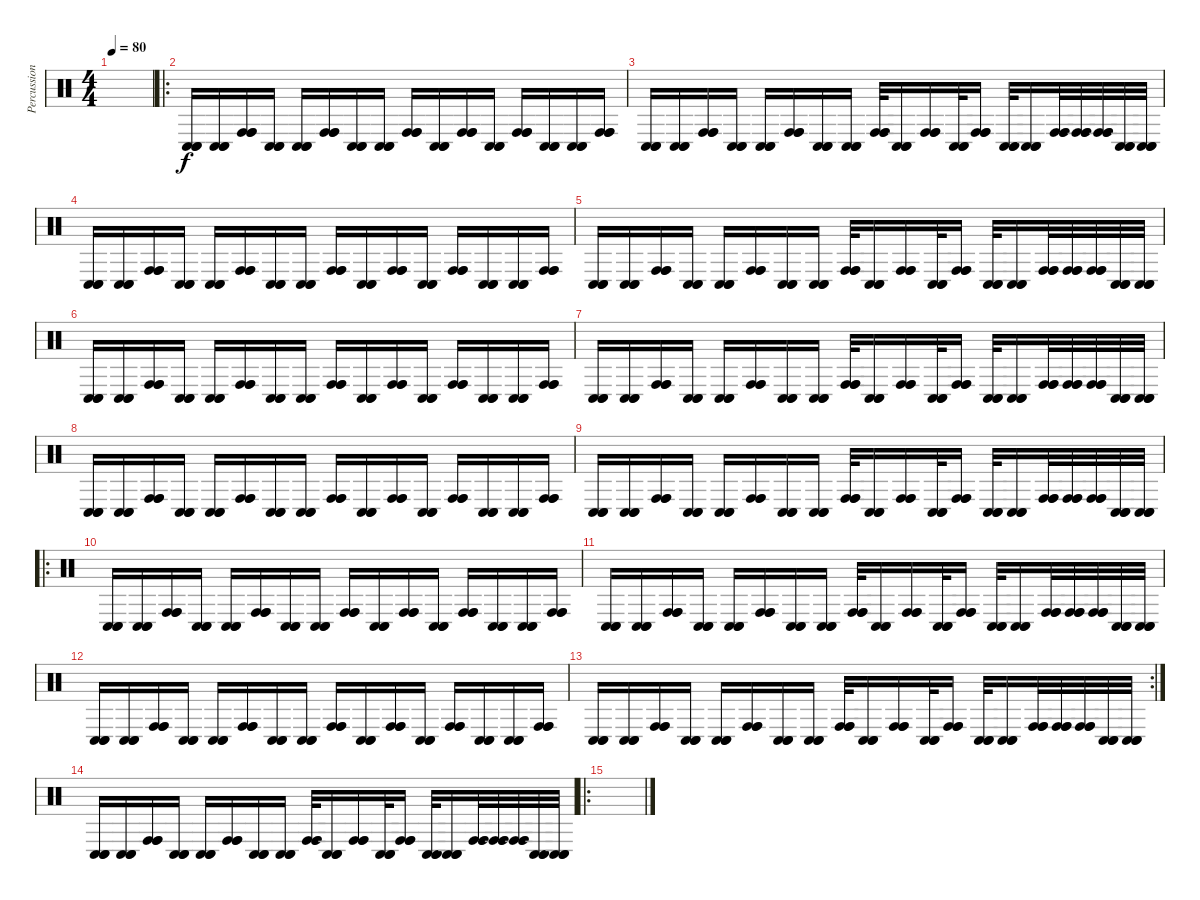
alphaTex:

\track ("Percussion" "Percussion") {instrument percussion}
\staff {score}
\articulation defaults
\ts (4 4)
\tempo 80
\clef neutral
\ks c
|
\ro
("Conga low (hit)" "Conga low (hit)" "Conga low (hit)").16 ("Conga low (hit)" "Conga low (hit)" "Conga low (hit)").16 ("Conga high (hit)" "Conga high (hit)" "Conga high (hit)").16 ("Conga low (hit)" "Conga low (hit)" "Conga low (hit)").16 ("Conga low (hit)" "Conga low (hit)" "Conga low (hit)").16 ("Conga high (hit)" "Conga high (hit)" "Conga high (hit)").16 ("Conga low (hit)" "Conga low (hit)" "Conga low (hit)").16 ("Conga low (hit)" "Conga low (hit)" "Conga low (hit)").16 ("Conga high (hit)" "Conga high (hit)" "Conga high (hit)").16 ("Conga low (hit)" "Conga low (hit)" "Conga low (hit)").16 ("Conga high (hit)" "Conga high (hit)" "Conga high (hit)").16 ("Conga low (hit)" "Conga low (hit)" "Conga low (hit)").16 ("Conga high (hit)" "Conga high (hit)" "Conga high (hit)").16 ("Conga low (hit)" "Conga low (hit)" "Conga low (hit)").16 ("Conga low (hit)" "Conga low (hit)" "Conga low (hit)").16 ("Conga high (hit)" "Conga high (hit)" "Conga high (hit)").16 |
("Conga low (hit)" "Conga low (hit)" "Conga low (hit)").16 ("Conga low (hit)" "Conga low (hit)" "Conga low (hit)").16 ("Conga high (hit)" "Conga high (hit)" "Conga high (hit)").16 ("Conga low (hit)" "Conga low (hit)" "Conga low (hit)").16 ("Conga low (hit)" "Conga low (hit)" "Conga low (hit)").16 ("Conga high (hit)" "Conga high (hit)" "Conga high (hit)").16 ("Conga low (hit)" "Conga low (hit)" "Conga low (hit)").16 ("Conga low (hit)" "Conga low (hit)" "Conga low (hit)").16 ("Conga high (hit)" "Conga high (hit)" "Conga high (hit)").32 ("Conga low (hit)" "Conga low (hit)" "Conga low (hit)").16 ("Conga high (hit)" "Conga high (hit)" "Conga high (hit)").16 ("Conga low (hit)" "Conga low (hit)" "Conga low (hit)").32 ("Conga high (hit)" "Conga high (hit)" "Conga high (hit)").16 ("Conga low (hit)" "Conga low (hit)" "Conga low (hit)").32 ("Conga low (hit)" "Conga low (hit)" "Conga low (hit)").16 ("Conga high (hit)" "Conga high (hit)" "Conga high (hit)").32 ("Conga high (hit)" "Conga high (hit)" "Conga high (hit)").32 ("Conga high (hit)" "Conga high (hit)" "Conga high (hit)").32 ("Conga low (hit)" "Conga low (hit)" "Conga low (hit)").32 ("Conga low (hit)" "Conga low (hit)" "Conga low (hit)").32 |
("Conga low (hit)" "Conga low (hit)" "Conga low (hit)").16 ("Conga low (hit)" "Conga low (hit)" "Conga low (hit)").16 ("Conga high (hit)" "Conga high (hit)" "Conga high (hit)").16 ("Conga low (hit)" "Conga low (hit)" "Conga low (hit)").16 ("Conga low (hit)" "Conga low (hit)" "Conga low (hit)").16 ("Conga high (hit)" "Conga high (hit)" "Conga high (hit)").16 ("Conga low (hit)" "Conga low (hit)" "Conga low (hit)").16 ("Conga low (hit)" "Conga low (hit)" "Conga low (hit)").16 ("Conga high (hit)" "Conga high (hit)" "Conga high (hit)").16 ("Conga low (hit)" "Conga low (hit)" "Conga low (hit)").16 ("Conga high (hit)" "Conga high (hit)" "Conga high (hit)").16 ("Conga low (hit)" "Conga low (hit)" "Conga low (hit)").16 ("Conga high (hit)" "Conga high (hit)" "Conga high (hit)").16 ("Conga low (hit)" "Conga low (hit)" "Conga low (hit)").16 ("Conga low (hit)" "Conga low (hit)" "Conga low (hit)").16 ("Conga high (hit)" "Conga high (hit)" "Conga high (hit)").16 |
("Conga low (hit)" "Conga low (hit)" "Conga low (hit)").16 ("Conga low (hit)" "Conga low (hit)" "Conga low (hit)").16 ("Conga high (hit)" "Conga high (hit)" "Conga high (hit)").16 ("Conga low (hit)" "Conga low (hit)" "Conga low (hit)").16 ("Conga low (hit)" "Conga low (hit)" "Conga low (hit)").16 ("Conga high (hit)" "Conga high (hit)" "Conga high (hit)").16 ("Conga low (hit)" "Conga low (hit)" "Conga low (hit)").16 ("Conga low (hit)" "Conga low (hit)" "Conga low (hit)").16 ("Conga high (hit)" "Conga high (hit)" "Conga high (hit)").32 ("Conga low (hit)" "Conga low (hit)" "Conga low (hit)").16 ("Conga high (hit)" "Conga high (hit)" "Conga high (hit)").16 ("Conga low (hit)" "Conga low (hit)" "Conga low (hit)").32 ("Conga high (hit)" "Conga high (hit)" "Conga high (hit)").16 ("Conga low (hit)" "Conga low (hit)" "Conga low (hit)").32 ("Conga low (hit)" "Conga low (hit)" "Conga low (hit)").16 ("Conga high (hit)" "Conga high (hit)" "Conga high (hit)").32 ("Conga high (hit)" "Conga high (hit)" "Conga high (hit)").32 ("Conga high (hit)" "Conga high (hit)" "Conga high (hit)").32 ("Conga low (hit)" "Conga low (hit)" "Conga low (hit)").32 ("Conga low (hit)" "Conga low (hit)" "Conga low (hit)").32 |
("Conga low (hit)" "Conga low (hit)" "Conga low (hit)").16 ("Conga low (hit)" "Conga low (hit)" "Conga low (hit)").16 ("Conga high (hit)" "Conga high (hit)" "Conga high (hit)").16 ("Conga low (hit)" "Conga low (hit)" "Conga low (hit)").16 ("Conga low (hit)" "Conga low (hit)" "Conga low (hit)").16 ("Conga high (hit)" "Conga high (hit)" "Conga high (hit)").16 ("Conga low (hit)" "Conga low (hit)" "Conga low (hit)").16 ("Conga low (hit)" "Conga low (hit)" "Conga low (hit)").16 ("Conga high (hit)" "Conga high (hit)" "Conga high (hit)").16 ("Conga low (hit)" "Conga low (hit)" "Conga low (hit)").16 ("Conga high (hit)" "Conga high (hit)" "Conga high (hit)").16 ("Conga low (hit)" "Conga low (hit)" "Conga low (hit)").16 ("Conga high (hit)" "Conga high (hit)" "Conga high (hit)").16 ("Conga low (hit)" "Conga low (hit)" "Conga low (hit)").16 ("Conga low (hit)" "Conga low (hit)" "Conga low (hit)").16 ("Conga high (hit)" "Conga high (hit)" "Conga high (hit)").16 |
("Conga low (hit)" "Conga low (hit)" "Conga low (hit)").16 ("Conga low (hit)" "Conga low (hit)" "Conga low (hit)").16 ("Conga high (hit)" "Conga high (hit)" "Conga high (hit)").16 ("Conga low (hit)" "Conga low (hit)" "Conga low (hit)").16 ("Conga low (hit)" "Conga low (hit)" "Conga low (hit)").16 ("Conga high (hit)" "Conga high (hit)" "Conga high (hit)").16 ("Conga low (hit)" "Conga low (hit)" "Conga low (hit)").16 ("Conga low (hit)" "Conga low (hit)" "Conga low (hit)").16 ("Conga high (hit)" "Conga high (hit)" "Conga high (hit)").32 ("Conga low (hit)" "Conga low (hit)" "Conga low (hit)").16 ("Conga high (hit)" "Conga high (hit)" "Conga high (hit)").16 ("Conga low (hit)" "Conga low (hit)" "Conga low (hit)").32 ("Conga high (hit)" "Conga high (hit)" "Conga high (hit)").16 ("Conga low (hit)" "Conga low (hit)" "Conga low (hit)").32 ("Conga low (hit)" "Conga low (hit)" "Conga low (hit)").16 ("Conga high (hit)" "Conga high (hit)" "Conga high (hit)").32 ("Conga high (hit)" "Conga high (hit)" "Conga high (hit)").32 ("Conga high (hit)" "Conga high (hit)" "Conga high (hit)").32 ("Conga low (hit)" "Conga low (hit)" "Conga low (hit)").32 ("Conga low (hit)" "Conga low (hit)" "Conga low (hit)").32 |
("Conga low (hit)" "Conga low (hit)" "Conga low (hit)").16 ("Conga low (hit)" "Conga low (hit)" "Conga low (hit)").16 ("Conga high (hit)" "Conga high (hit)" "Conga high (hit)").16 ("Conga low (hit)" "Conga low (hit)" "Conga low (hit)").16 ("Conga low (hit)" "Conga low (hit)" "Conga low (hit)").16 ("Conga high (hit)" "Conga high (hit)" "Conga high (hit)").16 ("Conga low (hit)" "Conga low (hit)" "Conga low (hit)").16 ("Conga low (hit)" "Conga low (hit)" "Conga low (hit)").16 ("Conga high (hit)" "Conga high (hit)" "Conga high (hit)").16 ("Conga low (hit)" "Conga low (hit)" "Conga low (hit)").16 ("Conga high (hit)" "Conga high (hit)" "Conga high (hit)").16 ("Conga low (hit)" "Conga low (hit)" "Conga low (hit)").16 ("Conga high (hit)" "Conga high (hit)" "Conga high (hit)").16 ("Conga low (hit)" "Conga low (hit)" "Conga low (hit)").16 ("Conga low (hit)" "Conga low (hit)" "Conga low (hit)").16 ("Conga high (hit)" "Conga high (hit)" "Conga high (hit)").16 |
("Conga low (hit)" "Conga low (hit)" "Conga low (hit)").16 ("Conga low (hit)" "Conga low (hit)" "Conga low (hit)").16 ("Conga high (hit)" "Conga high (hit)" "Conga high (hit)").16 ("Conga low (hit)" "Conga low (hit)" "Conga low (hit)").16 ("Conga low (hit)" "Conga low (hit)" "Conga low (hit)").16 ("Conga high (hit)" "Conga high (hit)" "Conga high (hit)").16 ("Conga low (hit)" "Conga low (hit)" "Conga low (hit)").16 ("Conga low (hit)" "Conga low (hit)" "Conga low (hit)").16 ("Conga high (hit)" "Conga high (hit)" "Conga high (hit)").32 ("Conga low (hit)" "Conga low (hit)" "Conga low (hit)").16 ("Conga high (hit)" "Conga high (hit)" "Conga high (hit)").16 ("Conga low (hit)" "Conga low (hit)" "Conga low (hit)").32 ("Conga high (hit)" "Conga high (hit)" "Conga high (hit)").16 ("Conga low (hit)" "Conga low (hit)" "Conga low (hit)").32 ("Conga low (hit)" "Conga low (hit)" "Conga low (hit)").16 ("Conga high (hit)" "Conga high (hit)" "Conga high (hit)").32 ("Conga high (hit)" "Conga high (hit)" "Conga high (hit)").32 ("Conga high (hit)" "Conga high (hit)" "Conga high (hit)").32 ("Conga low (hit)" "Conga low (hit)" "Conga low (hit)").32 ("Conga low (hit)" "Conga low (hit)" "Conga low (hit)").32 |
\ro
("Conga low (hit)" "Conga low (hit)" "Conga low (hit)").16 ("Conga low (hit)" "Conga low (hit)" "Conga low (hit)").16 ("Conga high (hit)" "Conga high (hit)" "Conga high (hit)").16 ("Conga low (hit)" "Conga low (hit)" "Conga low (hit)").16 ("Conga low (hit)" "Conga low (hit)" "Conga low (hit)").16 ("Conga high (hit)" "Conga high (hit)" "Conga high (hit)").16 ("Conga low (hit)" "Conga low (hit)" "Conga low (hit)").16 ("Conga low (hit)" "Conga low (hit)" "Conga low (hit)").16 ("Conga high (hit)" "Conga high (hit)" "Conga high (hit)").16 ("Conga low (hit)" "Conga low (hit)" "Conga low (hit)").16 ("Conga high (hit)" "Conga high (hit)" "Conga high (hit)").16 ("Conga low (hit)" "Conga low (hit)" "Conga low (hit)").16 ("Conga high (hit)" "Conga high (hit)" "Conga high (hit)").16 ("Conga low (hit)" "Conga low (hit)" "Conga low (hit)").16 ("Conga low (hit)" "Conga low (hit)" "Conga low (hit)").16 ("Conga high (hit)" "Conga high (hit)" "Conga high (hit)").16 |
("Conga low (hit)" "Conga low (hit)" "Conga low (hit)").16 ("Conga low (hit)" "Conga low (hit)" "Conga low (hit)").16 ("Conga high (hit)" "Conga high (hit)" "Conga high (hit)").16 ("Conga low (hit)" "Conga low (hit)" "Conga low (hit)").16 ("Conga low (hit)" "Conga low (hit)" "Conga low (hit)").16 ("Conga high (hit)" "Conga high (hit)" "Conga high (hit)").16 ("Conga low (hit)" "Conga low (hit)" "Conga low (hit)").16 ("Conga low (hit)" "Conga low (hit)" "Conga low (hit)").16 ("Conga high (hit)" "Conga high (hit)" "Conga high (hit)").32 ("Conga low (hit)" "Conga low (hit)" "Conga low (hit)").16 ("Conga high (hit)" "Conga high (hit)" "Conga high (hit)").16 ("Conga low (hit)" "Conga low (hit)" "Conga low (hit)").32 ("Conga high (hit)" "Conga high (hit)" "Conga high (hit)").16 ("Conga low (hit)" "Conga low (hit)" "Conga low (hit)").32 ("Conga low (hit)" "Conga low (hit)" "Conga low (hit)").16 ("Conga high (hit)" "Conga high (hit)" "Conga high (hit)").32 ("Conga high (hit)" "Conga high (hit)" "Conga high (hit)").32 ("Conga high (hit)" "Conga high (hit)" "Conga high (hit)").32 ("Conga low (hit)" "Conga low (hit)" "Conga low (hit)").32 ("Conga low (hit)" "Conga low (hit)" "Conga low (hit)").32 |
("Conga low (hit)" "Conga low (hit)" "Conga low (hit)").16 ("Conga low (hit)" "Conga low (hit)" "Conga low (hit)").16 ("Conga high (hit)" "Conga high (hit)" "Conga high (hit)").16 ("Conga low (hit)" "Conga low (hit)" "Conga low (hit)").16 ("Conga low (hit)" "Conga low (hit)" "Conga low (hit)").16 ("Conga high (hit)" "Conga high (hit)" "Conga high (hit)").16 ("Conga low (hit)" "Conga low (hit)" "Conga low (hit)").16 ("Conga low (hit)" "Conga low (hit)" "Conga low (hit)").16 ("Conga high (hit)" "Conga high (hit)" "Conga high (hit)").16 ("Conga low (hit)" "Conga low (hit)" "Conga low (hit)").16 ("Conga high (hit)" "Conga high (hit)" "Conga high (hit)").16 ("Conga low (hit)" "Conga low (hit)" "Conga low (hit)").16 ("Conga high (hit)" "Conga high (hit)" "Conga high (hit)").16 ("Conga low (hit)" "Conga low (hit)" "Conga low (hit)").16 ("Conga low (hit)" "Conga low (hit)" "Conga low (hit)").16 ("Conga high (hit)" "Conga high (hit)" "Conga high (hit)").16 |
\rc 2
("Conga low (hit)" "Conga low (hit)" "Conga low (hit)").16 ("Conga low (hit)" "Conga low (hit)" "Conga low (hit)").16 ("Conga high (hit)" "Conga high (hit)" "Conga high (hit)").16 ("Conga low (hit)" "Conga low (hit)" "Conga low (hit)").16 ("Conga low (hit)" "Conga low (hit)" "Conga low (hit)").16 ("Conga high (hit)" "Conga high (hit)" "Conga high (hit)").16 ("Conga low (hit)" "Conga low (hit)" "Conga low (hit)").16 ("Conga low (hit)" "Conga low (hit)" "Conga low (hit)").16 ("Conga high (hit)" "Conga high (hit)" "Conga high (hit)").32 ("Conga low (hit)" "Conga low (hit)" "Conga low (hit)").16 ("Conga high (hit)" "Conga high (hit)" "Conga high (hit)").16 ("Conga low (hit)" "Conga low (hit)" "Conga low (hit)").32 ("Conga high (hit)" "Conga high (hit)" "Conga high (hit)").16 ("Conga low (hit)" "Conga low (hit)" "Conga low (hit)").32 ("Conga low (hit)" "Conga low (hit)" "Conga low (hit)").16 ("Conga high (hit)" "Conga high (hit)" "Conga high (hit)").32 ("Conga high (hit)" "Conga high (hit)" "Conga high (hit)").32 ("Conga high (hit)" "Conga high (hit)" "Conga high (hit)").32 ("Conga low (hit)" "Conga low (hit)" "Conga low (hit)").32 ("Conga low (hit)" "Conga low (hit)" "Conga low (hit)").32 |
("Conga low (hit)" "Conga low (hit)" "Conga low (hit)").16 ("Conga low (hit)" "Conga low (hit)" "Conga low (hit)").16 ("Conga high (hit)" "Conga high (hit)" "Conga high (hit)").16 ("Conga low (hit)" "Conga low (hit)" "Conga low (hit)").16 ("Conga low (hit)" "Conga low (hit)" "Conga low (hit)").16 ("Conga high (hit)" "Conga high (hit)" "Conga high (hit)").16 ("Conga low (hit)" "Conga low (hit)" "Conga low (hit)").16 ("Conga low (hit)" "Conga low (hit)" "Conga low (hit)").16 ("Conga high (hit)" "Conga high (hit)" "Conga high (hit)").32 ("Conga low (hit)" "Conga low (hit)" "Conga low (hit)").16 ("Conga high (hit)" "Conga high (hit)" "Conga high (hit)").16 ("Conga low (hit)" "Conga low (hit)" "Conga low (hit)").32 ("Conga high (hit)" "Conga high (hit)" "Conga high (hit)").16 ("Conga low (hit)" "Conga low (hit)" "Conga low (hit)").32 ("Conga low (hit)" "Conga low (hit)" "Conga low (hit)").16 ("Conga high (hit)" "Conga high (hit)" "Conga high (hit)").32 ("Conga high (hit)" "Conga high (hit)" "Conga high (hit)").32 ("Conga high (hit)" "Conga high (hit)" "Conga high (hit)").32 ("Conga low (hit)" "Conga low (hit)" "Conga low (hit)").32 ("Conga low (hit)" "Conga low (hit)" "Conga low (hit)").32 |
\ro
